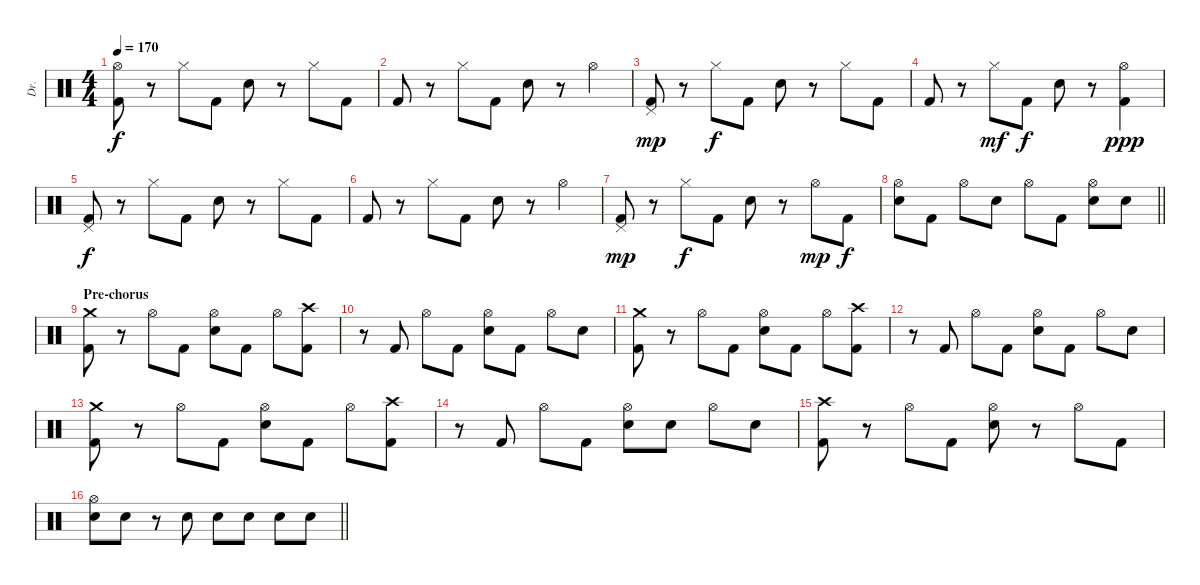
\track ("Dr." "Dr.") {instrument percussion}
\staff {score}
\articulation defaults
\ts (4 4)
\tempo 170
\clef neutral
\ks c
("Hi-Hat (open)" "Kick (hit) 2").8{dy f} r.8 "Hi-Hat (closed)".8 "Kick (hit) 2".8 "Electric Snare (hit)".8 r.8 "Hi-Hat (closed)".8 "Kick (hit) 2".8 |
"Kick (hit) 2".8 r.8 "Hi-Hat (closed)".8 "Kick (hit) 2".8 "Electric Snare (hit)".8 r.8 "Hi-Hat (open)".4 |
("Pedal Hi-Hat (hit)" "Kick (hit) 2").8{dy mp} r.8 "Hi-Hat (closed)".8{dy f} "Kick (hit) 2".8 "Electric Snare (hit)".8 r.8 "Hi-Hat (closed)".8 "Kick (hit) 2".8 |
"Kick (hit) 2".8 r.8 "Hi-Hat (closed)".8{dy mf} "Kick (hit) 2".8{dy f} "Electric Snare (hit)".8 r.8 ("Hi-Hat (open)" "Kick (hit) 2").4{dy ppp} |
("Pedal Hi-Hat (hit)" "Kick (hit) 2").8{dy f} r.8 "Hi-Hat (closed)".8 "Kick (hit) 2".8 "Electric Snare (hit)".8 r.8 "Hi-Hat (closed)".8 "Kick (hit) 2".8 |
"Kick (hit) 2".8 r.8 "Hi-Hat (closed)".8 "Kick (hit) 2".8 "Electric Snare (hit)".8 r.8 "Hi-Hat (open)".4 |
("Pedal Hi-Hat (hit)" "Kick (hit) 2").8{dy mp} r.8 "Hi-Hat (closed)".8{dy f} "Kick (hit) 2".8 "Electric Snare (hit)".8 r.8 "Hi-Hat (open)".8{dy mp} "Kick (hit) 2".8{dy f} |
\barLineRight lightlight
("Hi-Hat (open)" "Electric Snare (hit)").8 "Kick (hit) 2".8 "Hi-Hat (open)".8 "Electric Snare (hit)".8 "Hi-Hat (open)".8 "Kick (hit) 2".8 ("Hi-Hat (open)" "Electric Snare (hit)").8 "Electric Snare (hit)".8 |
\section ("" "Pre-chorus")
("Crash medium (hit)" "Kick (hit) 2").8 r.8 "Hi-Hat (open)".8 "Kick (hit) 2".8 ("Hi-Hat (open)" "Electric Snare (hit)").8 "Kick (hit) 2".8 "Hi-Hat (open)".8 ("Crash high (hit)" "Kick (hit) 2").8 |
r.8 "Kick (hit) 2".8 "Hi-Hat (open)".8 "Kick (hit) 2".8 ("Hi-Hat (open)" "Electric Snare (hit)").8 "Kick (hit) 2".8 "Hi-Hat (open)".8 "Electric Snare (hit)".8 |
("Crash medium (hit)" "Kick (hit) 2").8 r.8 "Hi-Hat (open)".8 "Kick (hit) 2".8 ("Hi-Hat (open)" "Electric Snare (hit)").8 "Kick (hit) 2".8 "Hi-Hat (open)".8 ("Crash high (hit)" "Kick (hit) 2").8 |
r.8 "Kick (hit) 2".8 "Hi-Hat (open)".8 "Kick (hit) 2".8 ("Hi-Hat (open)" "Electric Snare (hit)").8 "Kick (hit) 2".8 "Hi-Hat (open)".8 "Electric Snare (hit)".8 |
("Crash medium (hit)" "Kick (hit) 2").8 r.8 "Hi-Hat (open)".8 "Kick (hit) 2".8 ("Hi-Hat (open)" "Electric Snare (hit)").8 "Kick (hit) 2".8 "Hi-Hat (open)".8 ("Crash high (hit)" "Kick (hit) 2").8 |
r.8 "Kick (hit) 2".8 "Hi-Hat (open)".8 "Kick (hit) 2".8 ("Hi-Hat (open)" "Electric Snare (hit)").8 "Electric Snare (hit)".8 "Hi-Hat (open)".8 "Electric Snare (hit)".8 |
("Crash high (hit)" "Kick (hit) 2").8 r.8 "Hi-Hat (open)".8 "Kick (hit) 2".8 ("Hi-Hat (open)" "Electric Snare (hit)").8 r.8 "Hi-Hat (open)".8 "Kick (hit) 2".8 |
\barLineRight lightlight
("Hi-Hat (open)" "Electric Snare (hit)").8 "Electric Snare (hit)".8 r.8 "Electric Snare (hit)".8 "Electric Snare (hit)".8 "Electric Snare (hit)".8 "Electric Snare (hit)".8 "Electric Snare (hit)".8
